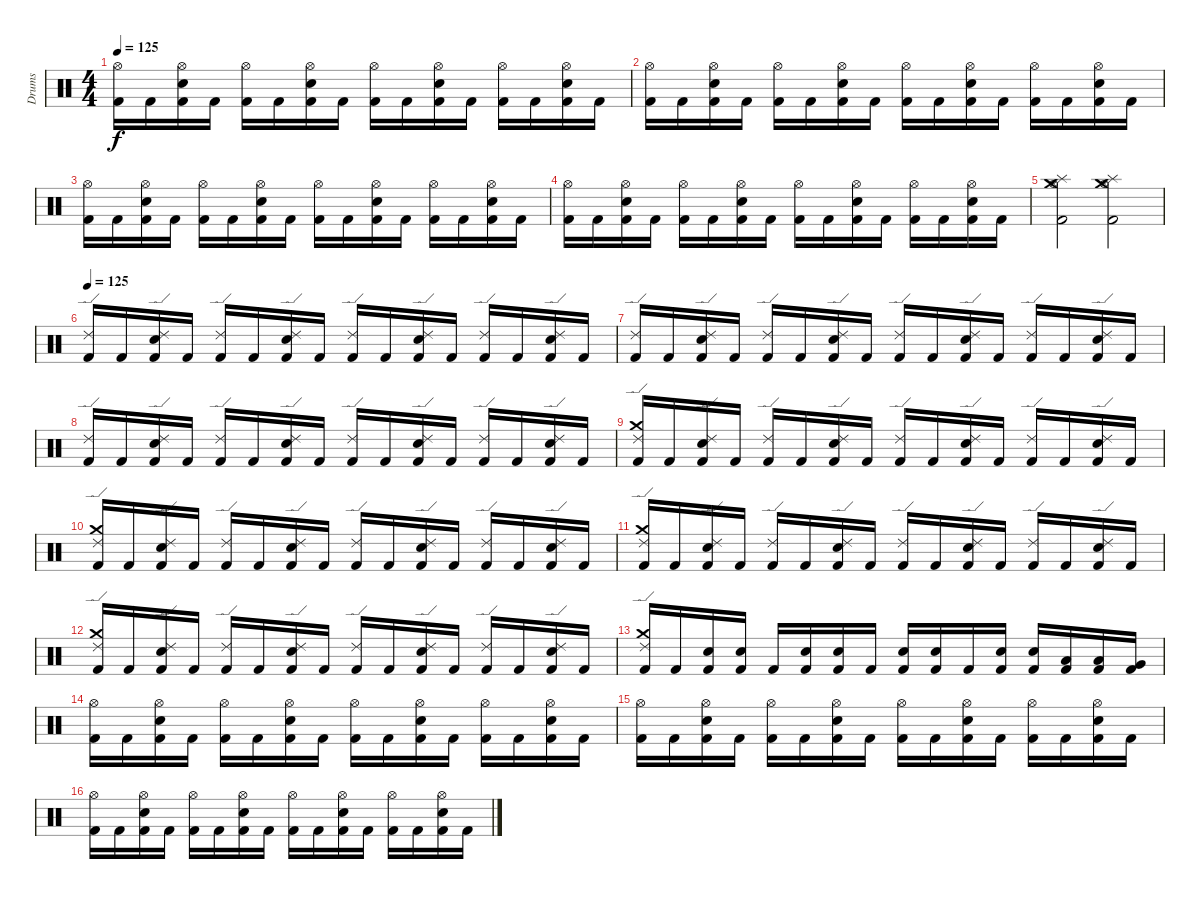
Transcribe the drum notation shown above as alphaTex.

\track ("Drums" "Drums") {instrument percussion}
\staff {score}
\articulation defaults
\ts (4 4)
\tempo 125
\clef neutral
\ks c
("Kick (hit) 2" "Hi-Hat (open)").16{dy f} "Kick (hit) 2".16 ("Kick (hit) 2" "Electric Snare (hit)" "Hi-Hat (open)").16 "Kick (hit) 2".16 ("Kick (hit) 2" "Hi-Hat (open)").16 "Kick (hit) 2".16 ("Kick (hit) 2" "Electric Snare (hit)" "Hi-Hat (open)").16 "Kick (hit) 2".16 ("Kick (hit) 2" "Hi-Hat (open)").16 "Kick (hit) 2".16 ("Kick (hit) 2" "Electric Snare (hit)" "Hi-Hat (open)").16 "Kick (hit) 2".16 ("Kick (hit) 2" "Hi-Hat (open)").16 "Kick (hit) 2".16 ("Kick (hit) 2" "Electric Snare (hit)" "Hi-Hat (open)").16 "Kick (hit) 2".16 |
("Kick (hit) 2" "Hi-Hat (open)").16 "Kick (hit) 2".16 ("Kick (hit) 2" "Electric Snare (hit)" "Hi-Hat (open)").16 "Kick (hit) 2".16 ("Kick (hit) 2" "Hi-Hat (open)").16 "Kick (hit) 2".16 ("Kick (hit) 2" "Electric Snare (hit)" "Hi-Hat (open)").16 "Kick (hit) 2".16 ("Kick (hit) 2" "Hi-Hat (open)").16 "Kick (hit) 2".16 ("Kick (hit) 2" "Electric Snare (hit)" "Hi-Hat (open)").16 "Kick (hit) 2".16 ("Kick (hit) 2" "Hi-Hat (open)").16 "Kick (hit) 2".16 ("Kick (hit) 2" "Electric Snare (hit)" "Hi-Hat (open)").16 "Kick (hit) 2".16 |
("Kick (hit) 2" "Hi-Hat (open)").16 "Kick (hit) 2".16 ("Kick (hit) 2" "Electric Snare (hit)" "Hi-Hat (open)").16 "Kick (hit) 2".16 ("Kick (hit) 2" "Hi-Hat (open)").16 "Kick (hit) 2".16 ("Kick (hit) 2" "Electric Snare (hit)" "Hi-Hat (open)").16 "Kick (hit) 2".16 ("Kick (hit) 2" "Hi-Hat (open)").16 "Kick (hit) 2".16 ("Kick (hit) 2" "Electric Snare (hit)" "Hi-Hat (open)").16 "Kick (hit) 2".16 ("Kick (hit) 2" "Hi-Hat (open)").16 "Kick (hit) 2".16 ("Kick (hit) 2" "Electric Snare (hit)" "Hi-Hat (open)").16 "Kick (hit) 2".16 |
("Kick (hit) 2" "Hi-Hat (open)").16 "Kick (hit) 2".16 ("Kick (hit) 2" "Electric Snare (hit)" "Hi-Hat (open)").16 "Kick (hit) 2".16 ("Kick (hit) 2" "Hi-Hat (open)").16 "Kick (hit) 2".16 ("Kick (hit) 2" "Electric Snare (hit)" "Hi-Hat (open)").16 "Kick (hit) 2".16 ("Kick (hit) 2" "Hi-Hat (open)").16 "Kick (hit) 2".16 ("Kick (hit) 2" "Electric Snare (hit)" "Hi-Hat (open)").16 "Kick (hit) 2".16 ("Kick (hit) 2" "Hi-Hat (open)").16 "Kick (hit) 2".16 ("Kick (hit) 2" "Electric Snare (hit)" "Hi-Hat (open)").16 "Kick (hit) 2".16 |
("Hi-Hat (open)" "Crash medium (hit)" "Splash (hit)" "Kick (hit) 2").2 ("Hi-Hat (open)" "Crash medium (hit)" "Splash (hit)" "Kick (hit) 2").2 |
\tempo 125
("Kick (hit) 2" "Ride (edge) 2").16 "Kick (hit) 2".16 ("Kick (hit) 2" "Electric Snare (hit)" "Ride (edge) 2").16 "Kick (hit) 2".16 ("Kick (hit) 2" "Ride (edge) 2").16 "Kick (hit) 2".16 ("Kick (hit) 2" "Electric Snare (hit)" "Ride (edge) 2").16 "Kick (hit) 2".16 ("Kick (hit) 2" "Ride (edge) 2").16 "Kick (hit) 2".16 ("Kick (hit) 2" "Electric Snare (hit)" "Ride (edge) 2").16 "Kick (hit) 2".16 ("Kick (hit) 2" "Ride (edge) 2").16 "Kick (hit) 2".16 ("Kick (hit) 2" "Electric Snare (hit)" "Ride (edge) 2").16 "Kick (hit) 2".16 |
("Kick (hit) 2" "Ride (edge) 2").16 "Kick (hit) 2".16 ("Kick (hit) 2" "Electric Snare (hit)" "Ride (edge) 2").16 "Kick (hit) 2".16 ("Kick (hit) 2" "Ride (edge) 2").16 "Kick (hit) 2".16 ("Kick (hit) 2" "Electric Snare (hit)" "Ride (edge) 2").16 "Kick (hit) 2".16 ("Kick (hit) 2" "Ride (edge) 2").16 "Kick (hit) 2".16 ("Kick (hit) 2" "Electric Snare (hit)" "Ride (edge) 2").16 "Kick (hit) 2".16 ("Kick (hit) 2" "Ride (edge) 2").16 "Kick (hit) 2".16 ("Kick (hit) 2" "Electric Snare (hit)" "Ride (edge) 2").16 "Kick (hit) 2".16 |
("Kick (hit) 2" "Ride (edge) 2").16 "Kick (hit) 2".16 ("Kick (hit) 2" "Electric Snare (hit)" "Ride (edge) 2").16 "Kick (hit) 2".16 ("Kick (hit) 2" "Ride (edge) 2").16 "Kick (hit) 2".16 ("Kick (hit) 2" "Electric Snare (hit)" "Ride (edge) 2").16 "Kick (hit) 2".16 ("Kick (hit) 2" "Ride (edge) 2").16 "Kick (hit) 2".16 ("Kick (hit) 2" "Electric Snare (hit)" "Ride (edge) 2").16 "Kick (hit) 2".16 ("Kick (hit) 2" "Ride (edge) 2").16 "Kick (hit) 2".16 ("Kick (hit) 2" "Electric Snare (hit)" "Ride (edge) 2").16 "Kick (hit) 2".16 |
("Crash medium (hit)" "Kick (hit) 2" "Ride (edge) 2").16 "Kick (hit) 2".16 ("Kick (hit) 2" "Electric Snare (hit)" "Ride (edge) 2").16 "Kick (hit) 2".16 ("Kick (hit) 2" "Ride (edge) 2").16 "Kick (hit) 2".16 ("Kick (hit) 2" "Electric Snare (hit)" "Ride (edge) 2").16 "Kick (hit) 2".16 ("Kick (hit) 2" "Ride (edge) 2").16 "Kick (hit) 2".16 ("Kick (hit) 2" "Electric Snare (hit)" "Ride (edge) 2").16 "Kick (hit) 2".16 ("Kick (hit) 2" "Ride (edge) 2").16 "Kick (hit) 2".16 ("Kick (hit) 2" "Electric Snare (hit)" "Ride (edge) 2").16 "Kick (hit) 2".16 |
("Crash medium (hit)" "Kick (hit) 2" "Ride (edge) 2").16 "Kick (hit) 2".16 ("Kick (hit) 2" "Electric Snare (hit)" "Ride (edge) 2").16 "Kick (hit) 2".16 ("Kick (hit) 2" "Ride (edge) 2").16 "Kick (hit) 2".16 ("Kick (hit) 2" "Electric Snare (hit)" "Ride (edge) 2").16 "Kick (hit) 2".16 ("Kick (hit) 2" "Ride (edge) 2").16 "Kick (hit) 2".16 ("Kick (hit) 2" "Electric Snare (hit)" "Ride (edge) 2").16 "Kick (hit) 2".16 ("Kick (hit) 2" "Ride (edge) 2").16 "Kick (hit) 2".16 ("Kick (hit) 2" "Electric Snare (hit)" "Ride (edge) 2").16 "Kick (hit) 2".16 |
("Crash medium (hit)" "Kick (hit) 2" "Ride (edge) 2").16 "Kick (hit) 2".16 ("Kick (hit) 2" "Electric Snare (hit)" "Ride (edge) 2").16 "Kick (hit) 2".16 ("Kick (hit) 2" "Ride (edge) 2").16 "Kick (hit) 2".16 ("Kick (hit) 2" "Electric Snare (hit)" "Ride (edge) 2").16 "Kick (hit) 2".16 ("Kick (hit) 2" "Ride (edge) 2").16 "Kick (hit) 2".16 ("Kick (hit) 2" "Electric Snare (hit)" "Ride (edge) 2").16 "Kick (hit) 2".16 ("Kick (hit) 2" "Ride (edge) 2").16 "Kick (hit) 2".16 ("Kick (hit) 2" "Electric Snare (hit)" "Ride (edge) 2").16 "Kick (hit) 2".16 |
("Crash medium (hit)" "Kick (hit) 2" "Ride (edge) 2").16 "Kick (hit) 2".16 ("Kick (hit) 2" "Electric Snare (hit)" "Ride (edge) 2").16 "Kick (hit) 2".16 ("Kick (hit) 2" "Ride (edge) 2").16 "Kick (hit) 2".16 ("Kick (hit) 2" "Electric Snare (hit)" "Ride (edge) 2").16 "Kick (hit) 2".16 ("Kick (hit) 2" "Ride (edge) 2").16 "Kick (hit) 2".16 ("Kick (hit) 2" "Electric Snare (hit)" "Ride (edge) 2").16 "Kick (hit) 2".16 ("Kick (hit) 2" "Ride (edge) 2").16 "Kick (hit) 2".16 ("Kick (hit) 2" "Electric Snare (hit)" "Ride (edge) 2").16 "Kick (hit) 2".16 |
("Crash medium (hit)" "Kick (hit) 2" "Ride (edge) 2").16 "Kick (hit) 2".16 ("Electric Snare (hit)" "Kick (hit) 2").16 ("Electric Snare (hit)" "Kick (hit) 2").16 "Kick (hit) 2".16 ("Electric Snare (hit)" "Kick (hit) 2").16 ("Electric Snare (hit)" "Kick (hit) 2").16 "Kick (hit) 2".16 ("Electric Snare (hit)" "Kick (hit) 2").16 ("Electric Snare (hit)" "Kick (hit) 2").16 "Kick (hit) 2".16 ("Electric Snare (hit)" "Kick (hit) 2").16 ("Electric Snare (hit)" "Kick (hit) 2").16 ("Low Tom (hit)" "Kick (hit) 2").16 ("Low Tom (hit)" "Kick (hit) 2").16 ("Very Low Tom (hit)" "Kick (hit) 2").16 |
("Hi-Hat (open)" "Kick (hit) 2").16 "Kick (hit) 2".16 ("Hi-Hat (open)" "Electric Snare (hit)" "Kick (hit) 2").16 "Kick (hit) 2".16 ("Hi-Hat (open)" "Kick (hit) 2").16 "Kick (hit) 2".16 ("Hi-Hat (open)" "Electric Snare (hit)" "Kick (hit) 2").16 "Kick (hit) 2".16 ("Hi-Hat (open)" "Kick (hit) 2").16 "Kick (hit) 2".16 ("Hi-Hat (open)" "Electric Snare (hit)" "Kick (hit) 2").16 "Kick (hit) 2".16 ("Hi-Hat (open)" "Kick (hit) 2").16 "Kick (hit) 2".16 ("Hi-Hat (open)" "Electric Snare (hit)" "Kick (hit) 2").16 "Kick (hit) 2".16 |
("Hi-Hat (open)" "Kick (hit) 2").16 "Kick (hit) 2".16 ("Hi-Hat (open)" "Electric Snare (hit)" "Kick (hit) 2").16 "Kick (hit) 2".16 ("Hi-Hat (open)" "Kick (hit) 2").16 "Kick (hit) 2".16 ("Hi-Hat (open)" "Electric Snare (hit)" "Kick (hit) 2").16 "Kick (hit) 2".16 ("Hi-Hat (open)" "Kick (hit) 2").16 "Kick (hit) 2".16 ("Hi-Hat (open)" "Electric Snare (hit)" "Kick (hit) 2").16 "Kick (hit) 2".16 ("Hi-Hat (open)" "Kick (hit) 2").16 "Kick (hit) 2".16 ("Hi-Hat (open)" "Electric Snare (hit)" "Kick (hit) 2").16 "Kick (hit) 2".16 |
("Hi-Hat (open)" "Kick (hit) 2").16 "Kick (hit) 2".16 ("Hi-Hat (open)" "Electric Snare (hit)" "Kick (hit) 2").16 "Kick (hit) 2".16 ("Hi-Hat (open)" "Kick (hit) 2").16 "Kick (hit) 2".16 ("Hi-Hat (open)" "Electric Snare (hit)" "Kick (hit) 2").16 "Kick (hit) 2".16 ("Hi-Hat (open)" "Kick (hit) 2").16 "Kick (hit) 2".16 ("Hi-Hat (open)" "Electric Snare (hit)" "Kick (hit) 2").16 "Kick (hit) 2".16 ("Hi-Hat (open)" "Kick (hit) 2").16 "Kick (hit) 2".16 ("Hi-Hat (open)" "Electric Snare (hit)" "Kick (hit) 2").16 "Kick (hit) 2".16
